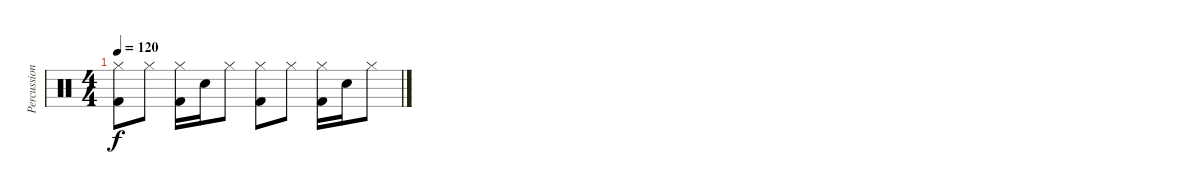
\track ("Percussions" "Percussion") {instrument percussion}
\staff {score}
\articulation defaults
\ts (4 4)
\tempo 120
\clef neutral
\ks c
("Hi-Hat (closed)" "Kick (hit) 2").8{dy f} "Hi-Hat (closed)".8 ("Hi-Hat (closed)" "Kick (hit) 2").16 "Snare (hit) 2".16 "Hi-Hat (closed)".8 ("Hi-Hat (closed)" "Kick (hit) 2").8 "Hi-Hat (closed)".8 ("Hi-Hat (closed)" "Kick (hit) 2").16 "Snare (hit) 2".16 "Hi-Hat (closed)".8
